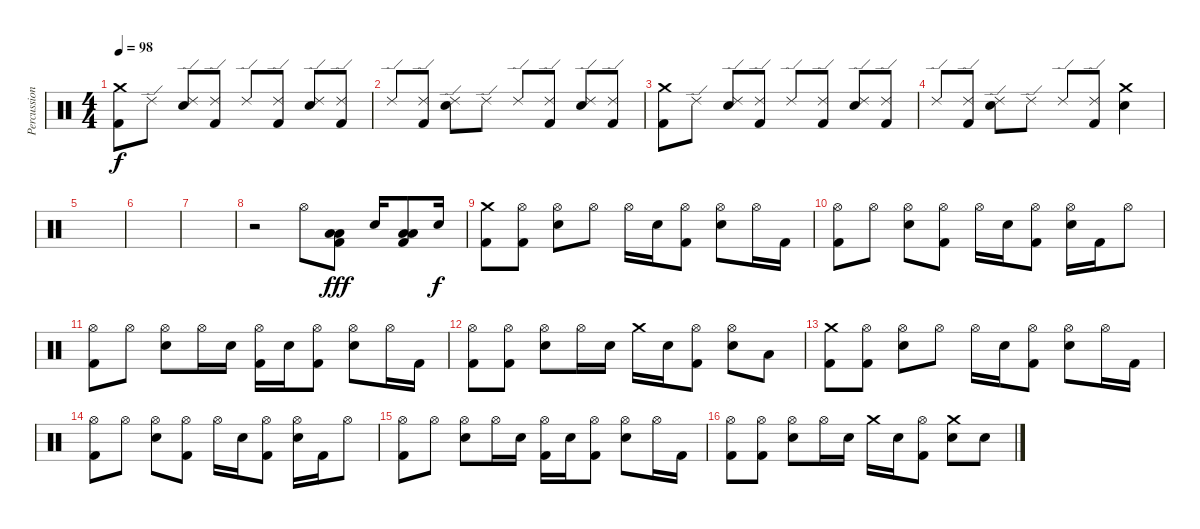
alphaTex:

\track ("Percussion" "Percussion") {instrument percussion}
\staff {score}
\articulation defaults
\ts (4 4)
\tempo 98
\clef neutral
\ks c
("Crash medium (hit)" "Kick (hit) 2").8{dy f} "Ride (edge) 2".8 ("Ride (edge) 2" "Electric Snare (hit)").8 ("Ride (edge) 2" "Kick (hit) 2").8 "Ride (edge) 2".8 ("Ride (edge) 2" "Kick (hit) 2").8 ("Ride (edge) 2" "Electric Snare (hit)").8 ("Ride (edge) 2" "Kick (hit) 2").8 |
"Ride (edge) 2".8 ("Ride (edge) 2" "Kick (hit) 2").8 ("Ride (edge) 2" "Electric Snare (hit)").8 "Ride (edge) 2".8 "Ride (edge) 2".8 ("Ride (edge) 2" "Kick (hit) 2").8 ("Ride (edge) 2" "Electric Snare (hit)").8 ("Ride (edge) 2" "Kick (hit) 2").8 |
("Crash medium (hit)" "Kick (hit) 2").8 "Ride (edge) 2".8 ("Ride (edge) 2" "Electric Snare (hit)").8 ("Ride (edge) 2" "Kick (hit) 2").8 "Ride (edge) 2".8 ("Ride (edge) 2" "Kick (hit) 2").8 ("Ride (edge) 2" "Electric Snare (hit)").8 ("Ride (edge) 2" "Kick (hit) 2").8 |
"Ride (edge) 2".8 ("Ride (edge) 2" "Kick (hit) 2").8 ("Ride (edge) 2" "Electric Snare (hit)").8 "Ride (edge) 2".8 "Ride (edge) 2".8 ("Ride (edge) 2" "Kick (hit) 2").8 ("Crash medium (hit)" "Electric Snare (hit)").4 |
|
|
|
r.2 "Hi-Hat (open)".8 ("Low Tom (hit)" "Low Floor Tom (hit)" "Kick (hit) 2").8{dy fff} "Electric Snare (hit)".16 ("Low Tom (hit)" "Low Floor Tom (hit)" "Kick (hit) 2").8 "Electric Snare (hit)".16{dy f} |
("Crash medium (hit)" "Kick (hit) 2").8 ("Hi-Hat (open)" "Kick (hit) 2").8 ("Hi-Hat (open)" "Electric Snare (hit)").8 "Hi-Hat (open)".8 "Hi-Hat (open)".16 "Electric Snare (hit)".16 ("Hi-Hat (open)" "Kick (hit) 2").8 ("Hi-Hat (open)" "Electric Snare (hit)").8 "Hi-Hat (open)".16 "Kick (hit) 2".16 |
("Hi-Hat (open)" "Kick (hit) 2").8 "Hi-Hat (open)".8 ("Hi-Hat (open)" "Electric Snare (hit)").8 ("Hi-Hat (open)" "Kick (hit) 2").8 "Hi-Hat (open)".16 "Electric Snare (hit)".16 ("Hi-Hat (open)" "Kick (hit) 2").8 ("Hi-Hat (open)" "Electric Snare (hit)").16 "Kick (hit) 2".16 "Hi-Hat (open)".8 |
("Hi-Hat (open)" "Kick (hit) 2").8 "Hi-Hat (open)".8 ("Hi-Hat (open)" "Electric Snare (hit)").8 "Hi-Hat (open)".16 "Electric Snare (hit)".16 ("Hi-Hat (open)" "Kick (hit) 2").16 "Electric Snare (hit)".16 ("Hi-Hat (open)" "Kick (hit) 2").8 ("Hi-Hat (open)" "Electric Snare (hit)").8 "Hi-Hat (open)".16 "Kick (hit) 2".16 |
("Hi-Hat (open)" "Kick (hit) 2").8 ("Hi-Hat (open)" "Kick (hit) 2").8 ("Hi-Hat (open)" "Electric Snare (hit)").8 "Hi-Hat (open)".16 "Electric Snare (hit)".16 "Crash medium (hit)".16 "Electric Snare (hit)".16 ("Hi-Hat (open)" "Kick (hit) 2").8 ("Hi-Hat (open)" "Electric Snare (hit)").8 "Low Tom (hit)".8 |
("Crash medium (hit)" "Kick (hit) 2").8 ("Hi-Hat (open)" "Kick (hit) 2").8 ("Hi-Hat (open)" "Electric Snare (hit)").8 "Hi-Hat (open)".8 "Hi-Hat (open)".16 "Electric Snare (hit)".16 ("Hi-Hat (open)" "Kick (hit) 2").8 ("Hi-Hat (open)" "Electric Snare (hit)").8 "Hi-Hat (open)".16 "Kick (hit) 2".16 |
("Hi-Hat (open)" "Kick (hit) 2").8 "Hi-Hat (open)".8 ("Hi-Hat (open)" "Electric Snare (hit)").8 ("Hi-Hat (open)" "Kick (hit) 2").8 "Hi-Hat (open)".16 "Electric Snare (hit)".16 ("Hi-Hat (open)" "Kick (hit) 2").8 ("Hi-Hat (open)" "Electric Snare (hit)").16 "Kick (hit) 2".16 "Hi-Hat (open)".8 |
("Hi-Hat (open)" "Kick (hit) 2").8 "Hi-Hat (open)".8 ("Hi-Hat (open)" "Electric Snare (hit)").8 "Hi-Hat (open)".16 "Electric Snare (hit)".16 ("Hi-Hat (open)" "Kick (hit) 2").16 "Electric Snare (hit)".16 ("Hi-Hat (open)" "Kick (hit) 2").8 ("Hi-Hat (open)" "Electric Snare (hit)").8 "Hi-Hat (open)".16 "Kick (hit) 2".16 |
("Hi-Hat (open)" "Kick (hit) 2").8 ("Hi-Hat (open)" "Kick (hit) 2").8 ("Hi-Hat (open)" "Electric Snare (hit)").8 "Hi-Hat (open)".16 "Electric Snare (hit)".16 "Crash medium (hit)".16 "Electric Snare (hit)".16 ("Hi-Hat (open)" "Kick (hit) 2").8 ("Crash medium (hit)" "Electric Snare (hit)").8 "Electric Snare (hit)".8
